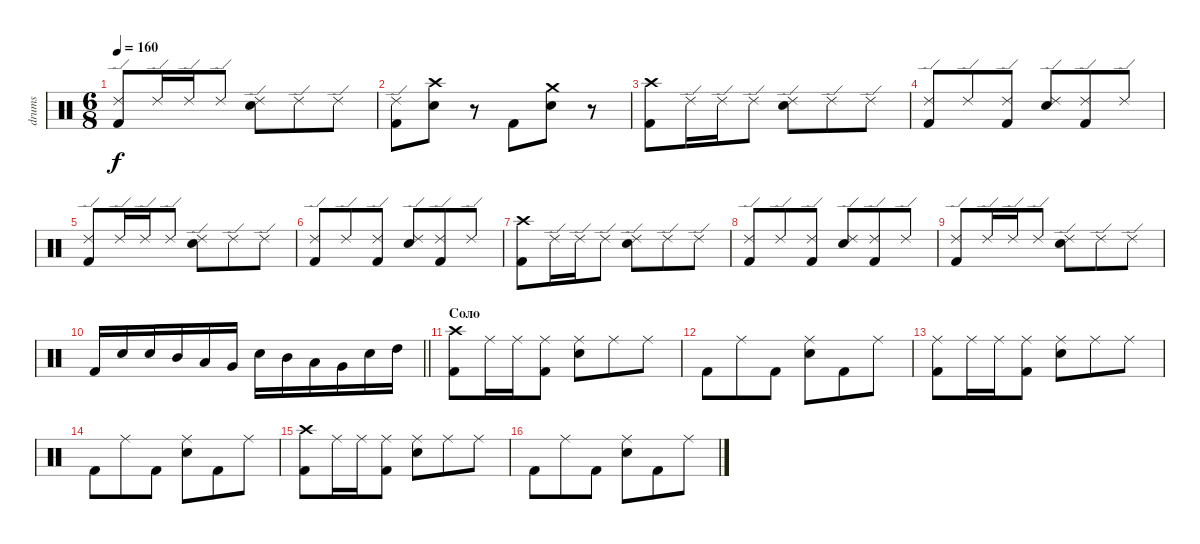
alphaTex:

\track ("drums" "drums") {instrument percussion}
\staff {score}
\articulation defaults
\ts (6 8)
\tempo 160
\clef neutral
\ks c
("Ride (edge) 2" "Kick (hit) 2").8{dy f} "Ride (edge) 2".16 "Ride (edge) 2".16 "Ride (edge) 2".8 ("Electric Snare (hit)" "Ride (edge) 2").8 "Ride (edge) 2".8 "Ride (edge) 2".8 |
("Kick (hit) 2" "Ride (edge) 2").8 ("Crash high (hit)" "Electric Snare (hit)").8 r.8 "Kick (hit) 2".8 ("Crash medium (hit)" "Electric Snare (hit)").8 r.8 |
("Kick (hit) 2" "Crash high (hit)").8 "Ride (edge) 2".16 "Ride (edge) 2".16 "Ride (edge) 2".8 ("Electric Snare (hit)" "Ride (edge) 2").8 "Ride (edge) 2".8 "Ride (edge) 2".8 |
("Kick (hit) 2" "Ride (edge) 2").8 "Ride (edge) 2".8 ("Kick (hit) 2" "Ride (edge) 2").8 ("Electric Snare (hit)" "Ride (edge) 2").8 ("Kick (hit) 2" "Ride (edge) 2").8 "Ride (edge) 2".8 |
("Ride (edge) 2" "Kick (hit) 2").8 "Ride (edge) 2".16 "Ride (edge) 2".16 "Ride (edge) 2".8 ("Electric Snare (hit)" "Ride (edge) 2").8 "Ride (edge) 2".8 "Ride (edge) 2".8 |
("Kick (hit) 2" "Ride (edge) 2").8 "Ride (edge) 2".8 ("Kick (hit) 2" "Ride (edge) 2").8 ("Electric Snare (hit)" "Ride (edge) 2").8 ("Kick (hit) 2" "Ride (edge) 2").8 "Ride (edge) 2".8 |
("Kick (hit) 2" "Crash high (hit)").8 "Ride (edge) 2".16 "Ride (edge) 2".16 "Ride (edge) 2".8 ("Electric Snare (hit)" "Ride (edge) 2").8 "Ride (edge) 2".8 "Ride (edge) 2".8 |
("Kick (hit) 2" "Ride (edge) 2").8 "Ride (edge) 2".8 ("Kick (hit) 2" "Ride (edge) 2").8 ("Electric Snare (hit)" "Ride (edge) 2").8 ("Kick (hit) 2" "Ride (edge) 2").8 "Ride (edge) 2".8 |
("Ride (edge) 2" "Kick (hit) 2").8 "Ride (edge) 2".16 "Ride (edge) 2".16 "Ride (edge) 2".8 ("Electric Snare (hit)" "Ride (edge) 2").8 "Ride (edge) 2".8 "Ride (edge) 2".8 |
\barLineRight lightlight "Kick (hit) 2".16 "Electric Snare (hit)".16 "Electric Snare (hit)".16 "Mid Tom (hit)".16 "Low Tom (hit)".16 "Very Low Tom (hit)".16 "Electric Snare (hit)".16 "Mid Tom (hit)".16 "Low Tom (hit)".16 "Very Low Tom (hit)".16 "Electric Snare (hit)".16 "High Tom (hit)".16
|
\section ("" "Соло")
("Kick (hit) 2" "Crash high (hit)").8 "Ride (middle)".16 "Ride (middle)".16 ("Kick (hit) 2" "Ride (middle)").8 ("Electric Snare (hit)" "Ride (middle)").8 "Ride (middle)".8 "Ride (middle)".8 |
"Kick (hit) 2".8 "Ride (middle)".8 "Kick (hit) 2".8 ("Electric Snare (hit)" "Ride (middle)").8 "Kick (hit) 2".8 "Ride (middle)".8 |
("Ride (middle)" "Kick (hit) 2").8 "Ride (middle)".16 "Ride (middle)".16 ("Kick (hit) 2" "Ride (middle)").8 ("Electric Snare (hit)" "Ride (middle)").8 "Ride (middle)".8 "Ride (middle)".8 |
"Kick (hit) 2".8 "Ride (middle)".8 "Kick (hit) 2".8 ("Electric Snare (hit)" "Ride (middle)").8 "Kick (hit) 2".8 "Ride (middle)".8 |
("Kick (hit) 2" "Crash high (hit)").8 "Ride (middle)".16 "Ride (middle)".16 ("Kick (hit) 2" "Ride (middle)").8 ("Electric Snare (hit)" "Ride (middle)").8 "Ride (middle)".8 "Ride (middle)".8 |
"Kick (hit) 2".8 "Ride (middle)".8 "Kick (hit) 2".8 ("Electric Snare (hit)" "Ride (middle)").8 "Kick (hit) 2".8 "Ride (middle)".8
